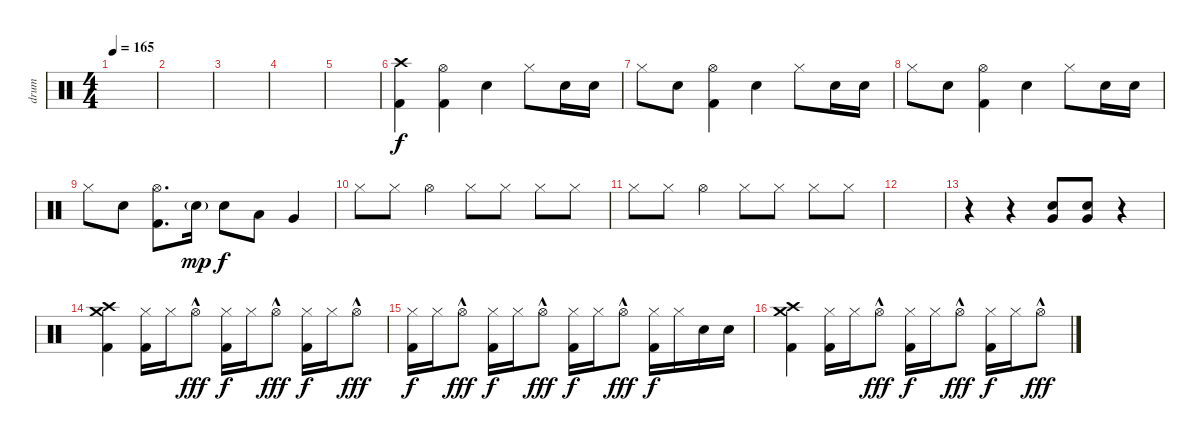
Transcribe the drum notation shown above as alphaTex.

\track ("drum" "drum") {instrument percussion}
\staff {score}
\articulation defaults
\ts (4 4)
\tempo 165
\clef neutral
\ks c
|
|
|
|
|
("Crash high (hit)" "Kick (hit) 2").4 ("Hi-Hat (open)" "Kick (hit) 2").4 "Electric Snare (hit)".4 "Hi-Hat (closed)".8 "Electric Snare (hit)".16 "Electric Snare (hit)".16 |
"Hi-Hat (closed)".8 "Electric Snare (hit)".8 ("Hi-Hat (open)" "Kick (hit) 2").4 "Electric Snare (hit)".4 "Hi-Hat (closed)".8 "Electric Snare (hit)".16 "Electric Snare (hit)".16 |
"Hi-Hat (closed)".8 "Electric Snare (hit)".8 ("Hi-Hat (open)" "Kick (hit) 2").4 "Electric Snare (hit)".4 "Hi-Hat (closed)".8 "Electric Snare (hit)".16 "Electric Snare (hit)".16 |
"Hi-Hat (closed)".8 "Electric Snare (hit)".8 ("Hi-Hat (open)" "Kick (hit) 2").8{d} "Electric Snare (hit)"{g}.16{dy mp} "Electric Snare (hit)".8{dy f} "Low Tom (hit)".8 "Very Low Tom (hit)".4 |
"Hi-Hat (closed)".8 "Hi-Hat (closed)".8 "Hi-Hat (open)".4 "Hi-Hat (closed)".8 "Hi-Hat (closed)".8 "Hi-Hat (closed)".8 "Hi-Hat (closed)".8 |
"Hi-Hat (closed)".8 "Hi-Hat (closed)".8 "Hi-Hat (open)".4 "Hi-Hat (closed)".8 "Hi-Hat (closed)".8 "Hi-Hat (closed)".8 "Hi-Hat (closed)".8 |
|
r.4 r.4 ("Electric Snare (hit)" "Very Low Tom (hit)").8 ("Electric Snare (hit)" "Very Low Tom (hit)").8 r.4 |
("Crash high (hit)" "Crash medium (hit)" "Kick (hit) 2").4 ("Hi-Hat (closed)" "Kick (hit) 2").16 "Hi-Hat (closed)".16 "Hi-Hat (open)"{hac}.8{dy fff} ("Hi-Hat (closed)" "Kick (hit) 2").16{dy f} "Hi-Hat (closed)".16 "Hi-Hat (open)"{hac}.8{dy fff} ("Hi-Hat (closed)" "Kick (hit) 2").16{dy f} "Hi-Hat (closed)".16 "Hi-Hat (open)"{hac}.8{dy fff} |
("Hi-Hat (closed)" "Kick (hit) 2").16{dy f} "Hi-Hat (closed)".16 "Hi-Hat (open)"{hac}.8{dy fff} ("Hi-Hat (closed)" "Kick (hit) 2").16{dy f} "Hi-Hat (closed)".16 "Hi-Hat (open)"{hac}.8{dy fff} ("Hi-Hat (closed)" "Kick (hit) 2").16{dy f} "Hi-Hat (closed)".16 "Hi-Hat (open)"{hac}.8{dy fff} ("Hi-Hat (closed)" "Kick (hit) 2").16{dy f} "Hi-Hat (closed)".16 "Electric Snare (hit)".16 "Electric Snare (hit)".16 |
("Crash high (hit)" "Crash medium (hit)" "Kick (hit) 2").4 ("Hi-Hat (closed)" "Kick (hit) 2").16 "Hi-Hat (closed)".16 "Hi-Hat (open)"{hac}.8{dy fff} ("Hi-Hat (closed)" "Kick (hit) 2").16{dy f} "Hi-Hat (closed)".16 "Hi-Hat (open)"{hac}.8{dy fff} ("Hi-Hat (closed)" "Kick (hit) 2").16{dy f} "Hi-Hat (closed)".16 "Hi-Hat (open)"{hac}.8{dy fff}
